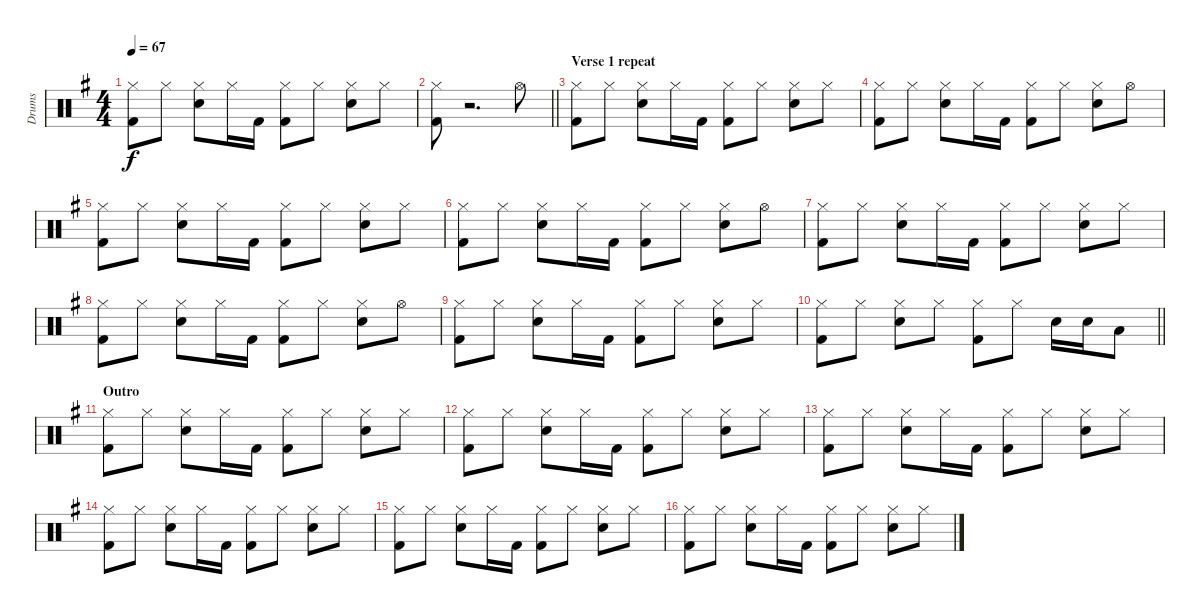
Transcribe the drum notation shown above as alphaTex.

\track ("Drums" "Drums") {instrument percussion}
\staff {score}
\articulation defaults
\ts (4 4)
\tempo 67
\clef neutral
\ks g
("Hi-Hat (closed)" "Kick (hit) 2").8{dy f} "Hi-Hat (closed)".8 ("Hi-Hat (closed)" "Snare (hit) 2").8 "Hi-Hat (closed)".16 "Kick (hit) 2".16 ("Hi-Hat (closed)" "Kick (hit) 2").8 "Hi-Hat (closed)".8 ("Hi-Hat (closed)" "Snare (hit) 2").8 "Hi-Hat (closed)".8 |
\barLineRight lightlight
("Hi-Hat (closed)" "Kick (hit) 2").8 r.2{d} "Hi-Hat (open)".8 |
\section ("" "Verse 1 repeat")
("Hi-Hat (closed)" "Kick (hit) 2").8 "Hi-Hat (closed)".8 ("Hi-Hat (closed)" "Snare (hit) 2").8 "Hi-Hat (closed)".16 "Kick (hit) 2".16 ("Hi-Hat (closed)" "Kick (hit) 2").8 "Hi-Hat (closed)".8 ("Hi-Hat (closed)" "Snare (hit) 2").8 "Hi-Hat (closed)".8 |
("Hi-Hat (closed)" "Kick (hit) 2").8 "Hi-Hat (closed)".8 ("Hi-Hat (closed)" "Snare (hit) 2").8 "Hi-Hat (closed)".16 "Kick (hit) 2".16 ("Hi-Hat (closed)" "Kick (hit) 2").8 "Hi-Hat (closed)".8 ("Hi-Hat (closed)" "Snare (hit) 2").8 "Hi-Hat (open)".8 |
("Hi-Hat (closed)" "Kick (hit) 2").8 "Hi-Hat (closed)".8 ("Hi-Hat (closed)" "Snare (hit) 2").8 "Hi-Hat (closed)".16 "Kick (hit) 2".16 ("Hi-Hat (closed)" "Kick (hit) 2").8 "Hi-Hat (closed)".8 ("Hi-Hat (closed)" "Snare (hit) 2").8 "Hi-Hat (closed)".8 |
("Hi-Hat (closed)" "Kick (hit) 2").8 "Hi-Hat (closed)".8 ("Hi-Hat (closed)" "Snare (hit) 2").8 "Hi-Hat (closed)".16 "Kick (hit) 2".16 ("Hi-Hat (closed)" "Kick (hit) 2").8 "Hi-Hat (closed)".8 ("Hi-Hat (closed)" "Snare (hit) 2").8 "Hi-Hat (open)".8 |
("Hi-Hat (closed)" "Kick (hit) 2").8 "Hi-Hat (closed)".8 ("Hi-Hat (closed)" "Snare (hit) 2").8 "Hi-Hat (closed)".16 "Kick (hit) 2".16 ("Hi-Hat (closed)" "Kick (hit) 2").8 "Hi-Hat (closed)".8 ("Hi-Hat (closed)" "Snare (hit) 2").8 "Hi-Hat (closed)".8 |
("Hi-Hat (closed)" "Kick (hit) 2").8 "Hi-Hat (closed)".8 ("Hi-Hat (closed)" "Snare (hit) 2").8 "Hi-Hat (closed)".16 "Kick (hit) 2".16 ("Hi-Hat (closed)" "Kick (hit) 2").8 "Hi-Hat (closed)".8 ("Hi-Hat (closed)" "Snare (hit) 2").8 "Hi-Hat (open)".8 |
("Hi-Hat (closed)" "Kick (hit) 2").8 "Hi-Hat (closed)".8 ("Hi-Hat (closed)" "Snare (hit) 2").8 "Hi-Hat (closed)".16 "Kick (hit) 2".16 ("Hi-Hat (closed)" "Kick (hit) 2").8 "Hi-Hat (closed)".8 ("Hi-Hat (closed)" "Snare (hit) 2").8 "Hi-Hat (closed)".8 |
\barLineRight lightlight
("Hi-Hat (closed)" "Kick (hit) 2").8 "Hi-Hat (closed)".8 ("Hi-Hat (closed)" "Snare (hit) 2").8 "Hi-Hat (closed)".8 ("Hi-Hat (closed)" "Kick (hit) 2").8 "Hi-Hat (closed)".8 "Snare (hit) 2".16 "Snare (hit) 2".16 "Low Tom (hit)".8 |
\section ("" "Outro")
("Hi-Hat (closed)" "Kick (hit) 2").8 "Hi-Hat (closed)".8 ("Hi-Hat (closed)" "Snare (hit) 2").8 "Hi-Hat (closed)".16 "Kick (hit) 2".16 ("Hi-Hat (closed)" "Kick (hit) 2").8 "Hi-Hat (closed)".8 ("Hi-Hat (closed)" "Snare (hit) 2").8 "Hi-Hat (closed)".8 |
("Hi-Hat (closed)" "Kick (hit) 2").8 "Hi-Hat (closed)".8 ("Hi-Hat (closed)" "Snare (hit) 2").8 "Hi-Hat (closed)".16 "Kick (hit) 2".16 ("Hi-Hat (closed)" "Kick (hit) 2").8 "Hi-Hat (closed)".8 ("Hi-Hat (closed)" "Snare (hit) 2").8 "Hi-Hat (closed)".8 |
("Hi-Hat (closed)" "Kick (hit) 2").8 "Hi-Hat (closed)".8 ("Hi-Hat (closed)" "Snare (hit) 2").8 "Hi-Hat (closed)".16 "Kick (hit) 2".16 ("Hi-Hat (closed)" "Kick (hit) 2").8 "Hi-Hat (closed)".8 ("Hi-Hat (closed)" "Snare (hit) 2").8 "Hi-Hat (closed)".8 |
("Hi-Hat (closed)" "Kick (hit) 2").8 "Hi-Hat (closed)".8 ("Hi-Hat (closed)" "Snare (hit) 2").8 "Hi-Hat (closed)".16 "Kick (hit) 2".16 ("Hi-Hat (closed)" "Kick (hit) 2").8 "Hi-Hat (closed)".8 ("Hi-Hat (closed)" "Snare (hit) 2").8 "Hi-Hat (closed)".8 |
("Hi-Hat (closed)" "Kick (hit) 2").8 "Hi-Hat (closed)".8 ("Hi-Hat (closed)" "Snare (hit) 2").8 "Hi-Hat (closed)".16 "Kick (hit) 2".16 ("Hi-Hat (closed)" "Kick (hit) 2").8 "Hi-Hat (closed)".8 ("Hi-Hat (closed)" "Snare (hit) 2").8 "Hi-Hat (closed)".8 |
("Hi-Hat (closed)" "Kick (hit) 2").8 "Hi-Hat (closed)".8 ("Hi-Hat (closed)" "Snare (hit) 2").8 "Hi-Hat (closed)".16 "Kick (hit) 2".16 ("Hi-Hat (closed)" "Kick (hit) 2").8 "Hi-Hat (closed)".8 ("Hi-Hat (closed)" "Snare (hit) 2").8 "Hi-Hat (closed)".8
